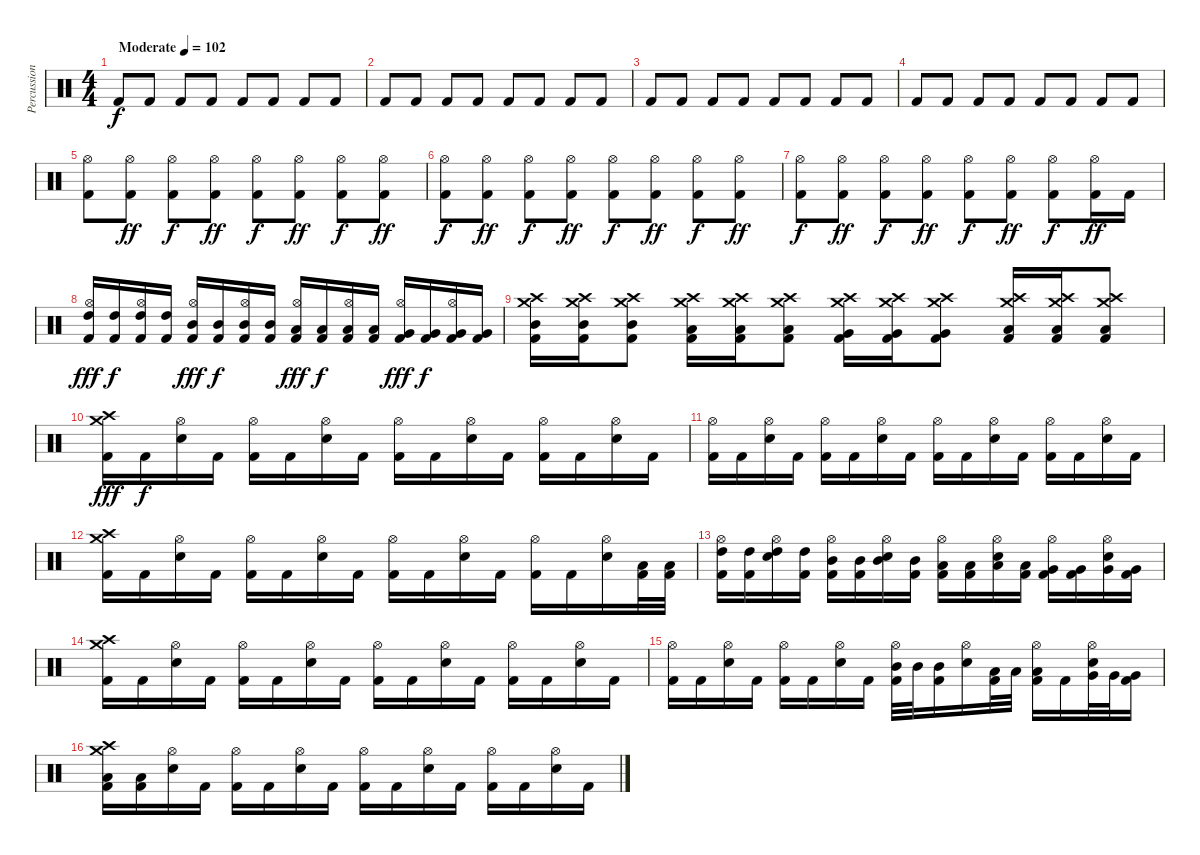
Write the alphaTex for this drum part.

\track ("Percussion" "Percussion") {instrument percussion}
\staff {score}
\articulation defaults
\ts (4 4)
\tempo (102 "Moderate")
\clef neutral
\ks c "Kick (hit) 2".8{dy f} "Kick (hit) 2".8 "Kick (hit) 2".8 "Kick (hit) 2".8 "Kick (hit) 2".8 "Kick (hit) 2".8 "Kick (hit) 2".8 "Kick (hit) 2".8
|
"Kick (hit) 2".8 "Kick (hit) 2".8 "Kick (hit) 2".8 "Kick (hit) 2".8 "Kick (hit) 2".8 "Kick (hit) 2".8 "Kick (hit) 2".8 "Kick (hit) 2".8 |
"Kick (hit) 2".8 "Kick (hit) 2".8 "Kick (hit) 2".8 "Kick (hit) 2".8 "Kick (hit) 2".8 "Kick (hit) 2".8 "Kick (hit) 2".8 "Kick (hit) 2".8 |
"Kick (hit) 2".8 "Kick (hit) 2".8 "Kick (hit) 2".8 "Kick (hit) 2".8 "Kick (hit) 2".8 "Kick (hit) 2".8 "Kick (hit) 2".8 "Kick (hit) 2".8 |
("Hi-Hat (open)" "Kick (hit) 2").8 ("Hi-Hat (open)" "Kick (hit) 2").8{dy ff} ("Hi-Hat (open)" "Kick (hit) 2").8{dy f} ("Hi-Hat (open)" "Kick (hit) 2").8{dy ff} ("Hi-Hat (open)" "Kick (hit) 2").8{dy f} ("Hi-Hat (open)" "Kick (hit) 2").8{dy ff} ("Hi-Hat (open)" "Kick (hit) 2").8{dy f} ("Hi-Hat (open)" "Kick (hit) 2").8{dy ff} |
("Hi-Hat (open)" "Kick (hit) 2").8{dy f} ("Hi-Hat (open)" "Kick (hit) 2").8{dy ff} ("Hi-Hat (open)" "Kick (hit) 2").8{dy f} ("Hi-Hat (open)" "Kick (hit) 2").8{dy ff} ("Hi-Hat (open)" "Kick (hit) 2").8{dy f} ("Hi-Hat (open)" "Kick (hit) 2").8{dy ff} ("Hi-Hat (open)" "Kick (hit) 2").8{dy f} ("Hi-Hat (open)" "Kick (hit) 2").8{dy ff} |
("Hi-Hat (open)" "Kick (hit) 2").8{dy f} ("Hi-Hat (open)" "Kick (hit) 2").8{dy ff} ("Hi-Hat (open)" "Kick (hit) 2").8{dy f} ("Hi-Hat (open)" "Kick (hit) 2").8{dy ff} ("Hi-Hat (open)" "Kick (hit) 2").8{dy f} ("Hi-Hat (open)" "Kick (hit) 2").8{dy ff} ("Hi-Hat (open)" "Kick (hit) 2").8{dy f} ("Hi-Hat (open)" "Kick (hit) 2").16{dy ff} "Kick (hit) 2".16 |
("Hi-Hat (open)" "High Tom (hit)" "Kick (hit) 2").16{dy fff} ("High Tom (hit)" "Kick (hit) 2").16{dy f} ("Hi-Hat (open)" "High Tom (hit)" "Kick (hit) 2").16 ("High Tom (hit)" "Kick (hit) 2").16 ("Hi-Hat (open)" "Mid Tom (hit)" "Kick (hit) 2").16{dy fff} ("Mid Tom (hit)" "Kick (hit) 2").16{dy f} ("Hi-Hat (open)" "Mid Tom (hit)" "Kick (hit) 2").16 ("Mid Tom (hit)" "Kick (hit) 2").16 ("Hi-Hat (open)" "Low Tom (hit)" "Kick (hit) 2").16{dy fff} ("Low Tom (hit)" "Kick (hit) 2").16{dy f} ("Hi-Hat (open)" "Low Tom (hit)" "Kick (hit) 2").16 ("Low Tom (hit)" "Kick (hit) 2").16 ("Hi-Hat (open)" "Very Low Tom (hit)" "Kick (hit) 2").16{dy fff} ("Very Low Tom (hit)" "Kick (hit) 2").16{dy f} ("Hi-Hat (open)" "Very Low Tom (hit)" "Kick (hit) 2").16 ("Very Low Tom (hit)" "Kick (hit) 2").16 |
("Crash high (hit)" "Crash medium (hit)" "Mid Tom (hit)" "Kick (hit) 2").16 ("Crash high (hit)" "Crash medium (hit)" "Mid Tom (hit)" "Kick (hit) 2").16 ("Crash high (hit)" "Crash medium (hit)" "Mid Tom (hit)" "Kick (hit) 2").8 ("Crash high (hit)" "Crash medium (hit)" "Low Tom (hit)" "Kick (hit) 2").16 ("Crash high (hit)" "Crash medium (hit)" "Low Tom (hit)" "Kick (hit) 2").16 ("Crash high (hit)" "Crash medium (hit)" "Low Tom (hit)" "Kick (hit) 2").8 ("Crash high (hit)" "Crash medium (hit)" "Very Low Tom (hit)" "Kick (hit) 2").16 ("Crash high (hit)" "Crash medium (hit)" "Very Low Tom (hit)" "Kick (hit) 2").16 ("Crash high (hit)" "Crash medium (hit)" "Very Low Tom (hit)" "Kick (hit) 2").8 ("Crash high (hit)" "Crash medium (hit)" "Low Floor Tom (hit)" "Kick (hit) 2").16 ("Crash high (hit)" "Crash medium (hit)" "Low Floor Tom (hit)" "Kick (hit) 2").16 ("Crash high (hit)" "Crash medium (hit)" "Low Floor Tom (hit)" "Kick (hit) 2").8 |
("Crash medium (hit)" "Crash high (hit)" "Kick (hit) 2").16{dy fff} "Kick (hit) 2".16{dy f} ("Hi-Hat (open)" "Electric Snare (hit)").16 "Kick (hit) 2".16 ("Hi-Hat (open)" "Kick (hit) 2").16 "Kick (hit) 2".16 ("Hi-Hat (open)" "Electric Snare (hit)").16 "Kick (hit) 2".16 ("Hi-Hat (open)" "Kick (hit) 2").16 "Kick (hit) 2".16 ("Hi-Hat (open)" "Electric Snare (hit)").16 "Kick (hit) 2".16 ("Hi-Hat (open)" "Kick (hit) 2").16 "Kick (hit) 2".16 ("Hi-Hat (open)" "Electric Snare (hit)").16 "Kick (hit) 2".16 |
("Hi-Hat (open)" "Kick (hit) 2").16 "Kick (hit) 2".16 ("Hi-Hat (open)" "Electric Snare (hit)").16 "Kick (hit) 2".16 ("Hi-Hat (open)" "Kick (hit) 2").16 "Kick (hit) 2".16 ("Hi-Hat (open)" "Electric Snare (hit)").16 "Kick (hit) 2".16 ("Hi-Hat (open)" "Kick (hit) 2").16 "Kick (hit) 2".16 ("Hi-Hat (open)" "Electric Snare (hit)").16 "Kick (hit) 2".16 ("Hi-Hat (open)" "Kick (hit) 2").16 "Kick (hit) 2".16 ("Hi-Hat (open)" "Electric Snare (hit)").16 "Kick (hit) 2".16 |
("Crash high (hit)" "Crash medium (hit)" "Kick (hit) 2").16 "Kick (hit) 2".16 ("Hi-Hat (open)" "Electric Snare (hit)").16 "Kick (hit) 2".16 ("Hi-Hat (open)" "Kick (hit) 2").16 "Kick (hit) 2".16 ("Hi-Hat (open)" "Electric Snare (hit)").16 "Kick (hit) 2".16 ("Hi-Hat (open)" "Kick (hit) 2").16 "Kick (hit) 2".16 ("Hi-Hat (open)" "Electric Snare (hit)").16 "Kick (hit) 2".16 ("Hi-Hat (open)" "Kick (hit) 2").16 "Kick (hit) 2".16 ("Hi-Hat (open)" "Electric Snare (hit)").16 ("Low Floor Tom (hit)" "Kick (hit) 2").32 ("Low Floor Tom (hit)" "Kick (hit) 2").32 |
("Hi-Hat (open)" "High Tom (hit)" "Kick (hit) 2").16 ("High Tom (hit)" "Kick (hit) 2").16 ("Hi-Hat (open)" "High Tom (hit)" "Electric Snare (hit)").16 ("High Tom (hit)" "Kick (hit) 2").16 ("Hi-Hat (open)" "Mid Tom (hit)" "Kick (hit) 2").16 ("Mid Tom (hit)" "Kick (hit) 2").16 ("Hi-Hat (open)" "Mid Tom (hit)" "Electric Snare (hit)").16 ("Mid Tom (hit)" "Kick (hit) 2").16 ("Hi-Hat (open)" "Low Tom (hit)" "Kick (hit) 2").16 ("Low Tom (hit)" "Kick (hit) 2").16 ("Hi-Hat (open)" "Low Tom (hit)" "Electric Snare (hit)").16 ("Low Tom (hit)" "Kick (hit) 2").16 ("Hi-Hat (open)" "Very Low Tom (hit)" "Kick (hit) 2").16 ("Very Low Tom (hit)" "Kick (hit) 2").16 ("Hi-Hat (open)" "Very Low Tom (hit)" "Electric Snare (hit)").16 ("Very Low Tom (hit)" "Kick (hit) 2").16 |
("Crash high (hit)" "Crash medium (hit)" "Kick (hit) 2").16 "Kick (hit) 2".16 ("Hi-Hat (open)" "Electric Snare (hit)").16 "Kick (hit) 2".16 ("Hi-Hat (open)" "Kick (hit) 2").16 "Kick (hit) 2".16 ("Hi-Hat (open)" "Electric Snare (hit)").16 "Kick (hit) 2".16 ("Hi-Hat (open)" "Kick (hit) 2").16 "Kick (hit) 2".16 ("Hi-Hat (open)" "Electric Snare (hit)").16 "Kick (hit) 2".16 ("Hi-Hat (open)" "Kick (hit) 2").16 "Kick (hit) 2".16 ("Hi-Hat (open)" "Electric Snare (hit)").16 "Kick (hit) 2".16 |
("Hi-Hat (open)" "Kick (hit) 2").16 "Kick (hit) 2".16 ("Hi-Hat (open)" "Electric Snare (hit)").16 "Kick (hit) 2".16 ("Hi-Hat (open)" "Kick (hit) 2").16 "Kick (hit) 2".16 ("Hi-Hat (open)" "Electric Snare (hit)").16 "Kick (hit) 2".16 ("Hi-Hat (open)" "Mid Tom (hit)" "Kick (hit) 2").32 "Mid Tom (hit)".32 ("Mid Tom (hit)" "Kick (hit) 2").16 ("Hi-Hat (open)" "Electric Snare (hit)").16 ("Low Tom (hit)" "Kick (hit) 2").32 "Low Tom (hit)".32 ("Hi-Hat (open)" "Low Tom (hit)" "Kick (hit) 2").16 "Kick (hit) 2".16 ("Hi-Hat (open)" "Very Low Tom (hit)" "Electric Snare (hit)").32 "Very Low Tom (hit)".32 ("Very Low Tom (hit)" "Kick (hit) 2").16 |
("Crash high (hit)" "Crash medium (hit)" "Low Floor Tom (hit)" "Kick (hit) 2").16 ("Low Floor Tom (hit)" "Kick (hit) 2").16 ("Hi-Hat (open)" "Electric Snare (hit)").16 "Kick (hit) 2".16 ("Hi-Hat (open)" "Kick (hit) 2").16 "Kick (hit) 2".16 ("Hi-Hat (open)" "Electric Snare (hit)").16 "Kick (hit) 2".16 ("Hi-Hat (open)" "Kick (hit) 2").16 "Kick (hit) 2".16 ("Hi-Hat (open)" "Electric Snare (hit)").16 "Kick (hit) 2".16 ("Hi-Hat (open)" "Kick (hit) 2").16 "Kick (hit) 2".16 ("Hi-Hat (open)" "Electric Snare (hit)").16 "Kick (hit) 2".16
